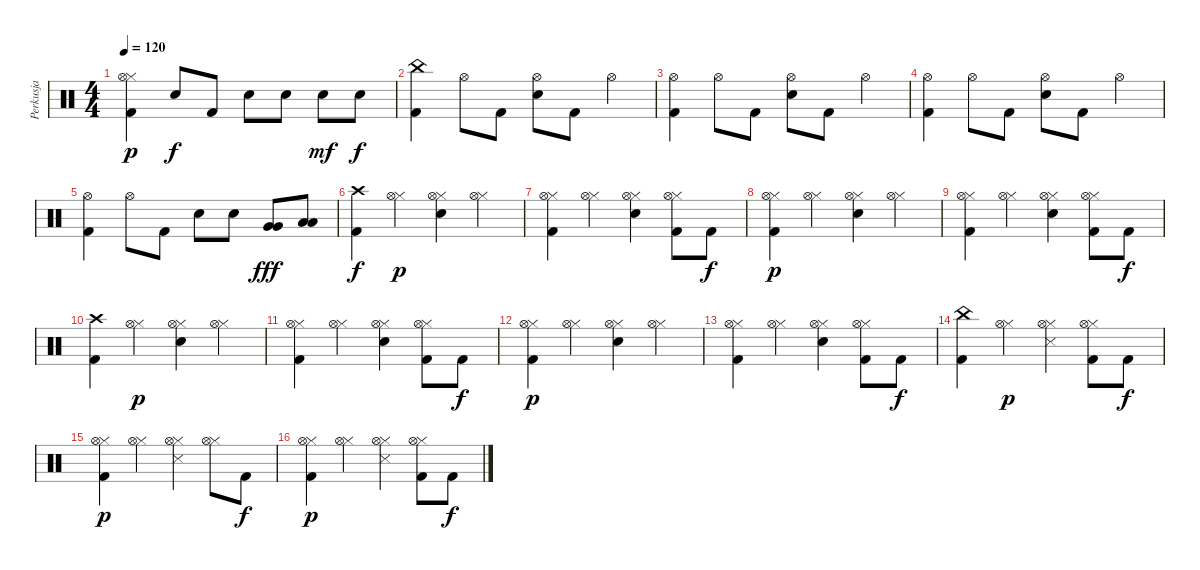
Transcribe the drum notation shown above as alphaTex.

\track ("Perkusja" "Perkusja") {instrument percussion}
\staff {score}
\articulation defaults
\ts (4 4)
\tempo 120
\clef neutral
\ks c
("Kick (hit) 2" "Hi-Hat (closed)" "Hi-Hat (open)").4{dy p} "Electric Snare (hit)".8{dy f} "Kick (hit) 2".8 "Electric Snare (hit)".8 "Electric Snare (hit)".8 "Electric Snare (hit)".8{dy mf} "Electric Snare (hit)".8{dy f} |
("Kick (hit) 2" "China (hit)").4 "Hi-Hat (open)".8 "Kick (hit) 2".8 ("Electric Snare (hit)" "Hi-Hat (open)").8 "Kick (hit) 2".8 "Hi-Hat (open)".4 |
("Kick (hit) 2" "Hi-Hat (open)").4 "Hi-Hat (open)".8 "Kick (hit) 2".8 ("Electric Snare (hit)" "Hi-Hat (open)").8 "Kick (hit) 2".8 "Hi-Hat (open)".4 |
("Kick (hit) 2" "Hi-Hat (open)").4 "Hi-Hat (open)".8 "Kick (hit) 2".8 ("Electric Snare (hit)" "Hi-Hat (open)").8 "Kick (hit) 2".8 "Hi-Hat (open)".4 |
("Kick (hit) 2" "Hi-Hat (open)").4 "Hi-Hat (open)".8 "Kick (hit) 2".8 "Electric Snare (hit)".8 "Electric Snare (hit)".8 ("Very Low Tom (hit)" "Very Low Tom (hit)").8{dy fff} ("Low Floor Tom (hit)" "Low Floor Tom (hit)").8 |
("Kick (hit) 2" "Crash high (hit)").4{dy f} ("Hi-Hat (closed)" "Hi-Hat (open)").4{dy p} ("Electric Snare (hit)" "Hi-Hat (closed)" "Hi-Hat (open)").4 ("Hi-Hat (closed)" "Hi-Hat (open)").4 |
("Kick (hit) 2" "Hi-Hat (closed)" "Hi-Hat (open)").4 ("Hi-Hat (closed)" "Hi-Hat (open)").4 ("Electric Snare (hit)" "Hi-Hat (closed)" "Hi-Hat (open)").4 ("Kick (hit) 2" "Hi-Hat (closed)" "Hi-Hat (open)").8 "Kick (hit) 2".8{dy f} |
("Kick (hit) 2" "Hi-Hat (closed)" "Hi-Hat (open)").4{dy p} ("Hi-Hat (closed)" "Hi-Hat (open)").4 ("Electric Snare (hit)" "Hi-Hat (closed)" "Hi-Hat (open)").4 ("Hi-Hat (closed)" "Hi-Hat (open)").4 |
("Kick (hit) 2" "Hi-Hat (closed)" "Hi-Hat (open)").4 ("Hi-Hat (closed)" "Hi-Hat (open)").4 ("Electric Snare (hit)" "Hi-Hat (closed)" "Hi-Hat (open)").4 ("Kick (hit) 2" "Hi-Hat (closed)" "Hi-Hat (open)").8 "Kick (hit) 2".8{dy f} |
("Kick (hit) 2" "Crash high (hit)").4 ("Hi-Hat (closed)" "Hi-Hat (open)").4{dy p} ("Electric Snare (hit)" "Hi-Hat (closed)" "Hi-Hat (open)").4 ("Hi-Hat (closed)" "Hi-Hat (open)").4 |
("Kick (hit) 2" "Hi-Hat (closed)" "Hi-Hat (open)").4 ("Hi-Hat (closed)" "Hi-Hat (open)").4 ("Electric Snare (hit)" "Hi-Hat (closed)" "Hi-Hat (open)").4 ("Kick (hit) 2" "Hi-Hat (closed)" "Hi-Hat (open)").8 "Kick (hit) 2".8{dy f} |
("Kick (hit) 2" "Hi-Hat (closed)" "Hi-Hat (open)").4{dy p} ("Hi-Hat (closed)" "Hi-Hat (open)").4 ("Electric Snare (hit)" "Hi-Hat (closed)" "Hi-Hat (open)").4 ("Hi-Hat (closed)" "Hi-Hat (open)").4 |
("Kick (hit) 2" "Hi-Hat (closed)" "Hi-Hat (open)").4 ("Hi-Hat (closed)" "Hi-Hat (open)").4 ("Electric Snare (hit)" "Hi-Hat (closed)" "Hi-Hat (open)").4 ("Kick (hit) 2" "Hi-Hat (closed)" "Hi-Hat (open)").8 "Kick (hit) 2".8{dy f} |
("Kick (hit) 2" "China (hit)").4 ("Hi-Hat (closed)" "Hi-Hat (open)").4{dy p} ("Metronome (hit)" "Hi-Hat (closed)" "Hi-Hat (open)").4 ("Kick (hit) 2" "Hi-Hat (closed)" "Hi-Hat (open)").8 "Kick (hit) 2".8{dy f} |
("Kick (hit) 2" "Hi-Hat (closed)" "Hi-Hat (open)").4{dy p} ("Hi-Hat (closed)" "Hi-Hat (open)").4 ("Metronome (hit)" "Hi-Hat (closed)" "Hi-Hat (open)").4 ("Hi-Hat (closed)" "Hi-Hat (open)").8 "Kick (hit) 2".8{dy f} |
("Kick (hit) 2" "Hi-Hat (closed)" "Hi-Hat (open)").4{dy p} ("Hi-Hat (closed)" "Hi-Hat (open)").4 ("Metronome (hit)" "Hi-Hat (closed)" "Hi-Hat (open)").4 ("Kick (hit) 2" "Hi-Hat (closed)" "Hi-Hat (open)").8 "Kick (hit) 2".8{dy f}
